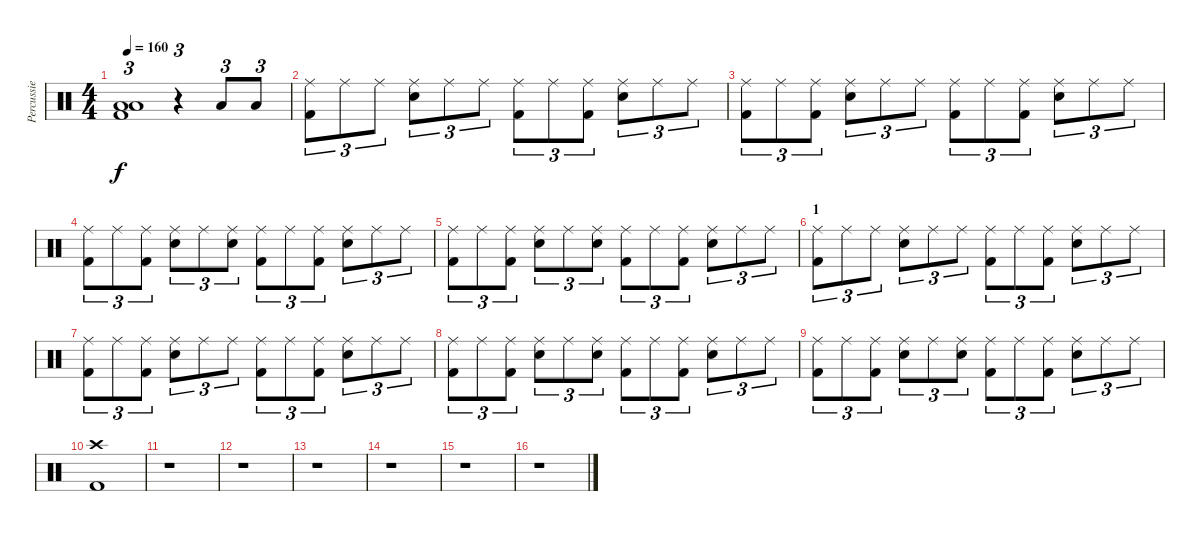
\track ("Percussie" "Percussie") {instrument percussion}
\staff {score}
\articulation defaults
\ts (4 4)
\tempo 160
\clef neutral
\ks c
("Low Floor Tom (hit)" "Low Floor Tom (hit)" "Kick (hit) 2").1{tu (3 2) dy f} r.4{tu (3 2)} "Low Floor Tom (hit)".8{tu (3 2)} "Low Floor Tom (hit)".8{tu (3 2)} |
("Ride (middle)" "Kick (hit) 2").8{tu (3 2)} "Ride (middle)".8{tu (3 2)} "Ride (middle)".8{tu (3 2)} ("Ride (middle)" "Snare (hit) 2").8{tu (3 2)} "Ride (middle)".8{tu (3 2)} "Ride (middle)".8{tu (3 2)} ("Ride (middle)" "Kick (hit) 2").8{tu (3 2)} "Ride (middle)".8{tu (3 2)} ("Ride (middle)" "Kick (hit) 2").8{tu (3 2)} ("Ride (middle)" "Snare (hit) 2").8{tu (3 2)} "Ride (middle)".8{tu (3 2)} "Ride (middle)".8{tu (3 2)} |
("Ride (middle)" "Kick (hit) 2").8{tu (3 2)} "Ride (middle)".8{tu (3 2)} ("Ride (middle)" "Kick (hit) 2").8{tu (3 2)} ("Ride (middle)" "Snare (hit) 2").8{tu (3 2)} "Ride (middle)".8{tu (3 2)} "Ride (middle)".8{tu (3 2)} ("Ride (middle)" "Kick (hit) 2").8{tu (3 2)} "Ride (middle)".8{tu (3 2)} ("Ride (middle)" "Kick (hit) 2").8{tu (3 2)} ("Ride (middle)" "Snare (hit) 2").8{tu (3 2)} "Ride (middle)".8{tu (3 2)} "Ride (middle)".8{tu (3 2)} |
("Ride (middle)" "Kick (hit) 2").8{tu (3 2)} "Ride (middle)".8{tu (3 2)} ("Ride (middle)" "Kick (hit) 2").8{tu (3 2)} ("Ride (middle)" "Snare (hit) 2").8{tu (3 2)} "Ride (middle)".8{tu (3 2)} ("Ride (middle)" "Snare (hit) 2").8{tu (3 2)} ("Ride (middle)" "Kick (hit) 2").8{tu (3 2)} "Ride (middle)".8{tu (3 2)} ("Ride (middle)" "Kick (hit) 2").8{tu (3 2)} ("Ride (middle)" "Snare (hit) 2").8{tu (3 2)} "Ride (middle)".8{tu (3 2)} "Ride (middle)".8{tu (3 2)} |
("Ride (middle)" "Kick (hit) 2").8{tu (3 2)} "Ride (middle)".8{tu (3 2)} ("Ride (middle)" "Kick (hit) 2").8{tu (3 2)} ("Ride (middle)" "Snare (hit) 2").8{tu (3 2)} "Ride (middle)".8{tu (3 2)} ("Ride (middle)" "Snare (hit) 2").8{tu (3 2)} ("Ride (middle)" "Kick (hit) 2").8{tu (3 2)} "Ride (middle)".8{tu (3 2)} ("Ride (middle)" "Kick (hit) 2").8{tu (3 2)} ("Ride (middle)" "Snare (hit) 2").8{tu (3 2)} "Ride (middle)".8{tu (3 2)} "Ride (middle)".8{tu (3 2)} |
\section ("" "1")
("Ride (middle)" "Kick (hit) 2").8{tu (3 2)} "Ride (middle)".8{tu (3 2)} "Ride (middle)".8{tu (3 2)} ("Ride (middle)" "Snare (hit) 2").8{tu (3 2)} "Ride (middle)".8{tu (3 2)} "Ride (middle)".8{tu (3 2)} ("Ride (middle)" "Kick (hit) 2").8{tu (3 2)} "Ride (middle)".8{tu (3 2)} ("Ride (middle)" "Kick (hit) 2").8{tu (3 2)} ("Ride (middle)" "Snare (hit) 2").8{tu (3 2)} "Ride (middle)".8{tu (3 2)} "Ride (middle)".8{tu (3 2)} |
("Ride (middle)" "Kick (hit) 2").8{tu (3 2)} "Ride (middle)".8{tu (3 2)} ("Ride (middle)" "Kick (hit) 2").8{tu (3 2)} ("Ride (middle)" "Snare (hit) 2").8{tu (3 2)} "Ride (middle)".8{tu (3 2)} "Ride (middle)".8{tu (3 2)} ("Ride (middle)" "Kick (hit) 2").8{tu (3 2)} "Ride (middle)".8{tu (3 2)} ("Ride (middle)" "Kick (hit) 2").8{tu (3 2)} ("Ride (middle)" "Snare (hit) 2").8{tu (3 2)} "Ride (middle)".8{tu (3 2)} "Ride (middle)".8{tu (3 2)} |
("Ride (middle)" "Kick (hit) 2").8{tu (3 2)} "Ride (middle)".8{tu (3 2)} ("Ride (middle)" "Kick (hit) 2").8{tu (3 2)} ("Ride (middle)" "Snare (hit) 2").8{tu (3 2)} "Ride (middle)".8{tu (3 2)} ("Ride (middle)" "Snare (hit) 2").8{tu (3 2)} ("Ride (middle)" "Kick (hit) 2").8{tu (3 2)} "Ride (middle)".8{tu (3 2)} ("Ride (middle)" "Kick (hit) 2").8{tu (3 2)} ("Ride (middle)" "Snare (hit) 2").8{tu (3 2)} "Ride (middle)".8{tu (3 2)} "Ride (middle)".8{tu (3 2)} |
("Ride (middle)" "Kick (hit) 2").8{tu (3 2)} "Ride (middle)".8{tu (3 2)} ("Ride (middle)" "Kick (hit) 2").8{tu (3 2)} ("Ride (middle)" "Snare (hit) 2").8{tu (3 2)} "Ride (middle)".8{tu (3 2)} ("Ride (middle)" "Snare (hit) 2").8{tu (3 2)} ("Ride (middle)" "Kick (hit) 2").8{tu (3 2)} "Ride (middle)".8{tu (3 2)} ("Ride (middle)" "Kick (hit) 2").8{tu (3 2)} ("Ride (middle)" "Snare (hit) 2").8{tu (3 2)} "Ride (middle)".8{tu (3 2)} "Ride (middle)".8{tu (3 2)} |
("Crash high (hit)" "Kick (hit) 2").1 |
r.1 |
r.1 |
r.1 |
r.1 |
r.1 |
r.1
